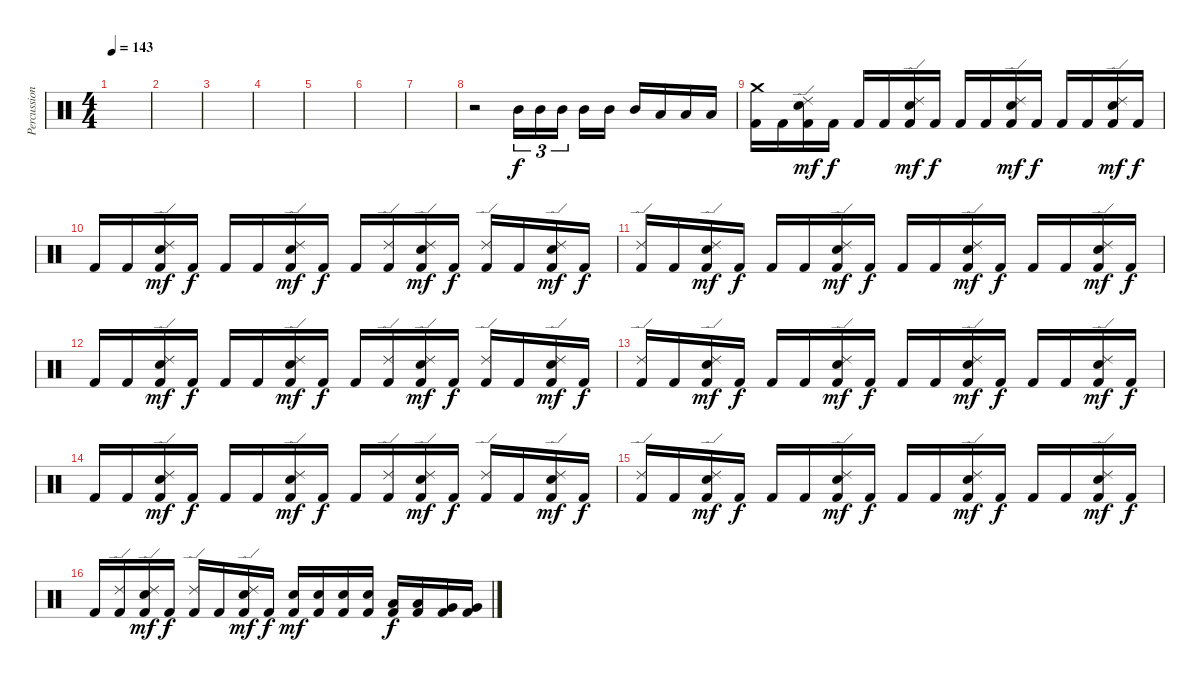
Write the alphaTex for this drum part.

\track ("Percussion" "Percussion") {instrument percussion}
\staff {score}
\articulation defaults
\ts (4 4)
\tempo 143
\clef neutral
\ks c
|
|
|
|
|
|
|
r.2 "Mid Tom (hit)".16{tu (3 2)} "Mid Tom (hit)".16{tu (3 2)} "Mid Tom (hit)".16{tu (3 2) beam splitsecondary} "Mid Tom (hit)".16 "Mid Tom (hit)".16 "Mid Tom (hit)".16 "Low Tom (hit)".16 "Low Tom (hit)".16 "Low Tom (hit)".16 |
("Crash medium (hit)" "Kick (hit) 2").16 "Kick (hit) 2".16 ("Ride (edge) 2" "Electric Snare (hit)" "Kick (hit) 2").16{dy mf} "Kick (hit) 2".16{dy f} "Kick (hit) 2".16 "Kick (hit) 2".16 ("Ride (edge) 2" "Electric Snare (hit)" "Kick (hit) 2").16{dy mf} "Kick (hit) 2".16{dy f} "Kick (hit) 2".16 "Kick (hit) 2".16 ("Ride (edge) 2" "Electric Snare (hit)" "Kick (hit) 2").16{dy mf} "Kick (hit) 2".16{dy f} "Kick (hit) 2".16 "Kick (hit) 2".16 ("Ride (edge) 2" "Electric Snare (hit)" "Kick (hit) 2").16{dy mf} "Kick (hit) 2".16{dy f} |
"Kick (hit) 2".16 "Kick (hit) 2".16 ("Ride (edge) 2" "Electric Snare (hit)" "Kick (hit) 2").16{dy mf} "Kick (hit) 2".16{dy f} "Kick (hit) 2".16 "Kick (hit) 2".16 ("Ride (edge) 2" "Electric Snare (hit)" "Kick (hit) 2").16{dy mf} "Kick (hit) 2".16{dy f} "Kick (hit) 2".16 ("Ride (edge) 2" "Kick (hit) 2").16 ("Ride (edge) 2" "Electric Snare (hit)" "Kick (hit) 2").16{dy mf} "Kick (hit) 2".16{dy f} ("Ride (edge) 2" "Kick (hit) 2").16 "Kick (hit) 2".16 ("Ride (edge) 2" "Electric Snare (hit)" "Kick (hit) 2").16{dy mf} "Kick (hit) 2".16{dy f} |
("Ride (edge) 2" "Kick (hit) 2").16 "Kick (hit) 2".16 ("Ride (edge) 2" "Electric Snare (hit)" "Kick (hit) 2").16{dy mf} "Kick (hit) 2".16{dy f} "Kick (hit) 2".16 "Kick (hit) 2".16 ("Ride (edge) 2" "Electric Snare (hit)" "Kick (hit) 2").16{dy mf} "Kick (hit) 2".16{dy f} "Kick (hit) 2".16 "Kick (hit) 2".16 ("Ride (edge) 2" "Electric Snare (hit)" "Kick (hit) 2").16{dy mf} "Kick (hit) 2".16{dy f} "Kick (hit) 2".16 "Kick (hit) 2".16 ("Ride (edge) 2" "Electric Snare (hit)" "Kick (hit) 2").16{dy mf} "Kick (hit) 2".16{dy f} |
"Kick (hit) 2".16 "Kick (hit) 2".16 ("Ride (edge) 2" "Electric Snare (hit)" "Kick (hit) 2").16{dy mf} "Kick (hit) 2".16{dy f} "Kick (hit) 2".16 "Kick (hit) 2".16 ("Ride (edge) 2" "Electric Snare (hit)" "Kick (hit) 2").16{dy mf} "Kick (hit) 2".16{dy f} "Kick (hit) 2".16 ("Ride (edge) 2" "Kick (hit) 2").16 ("Ride (edge) 2" "Electric Snare (hit)" "Kick (hit) 2").16{dy mf} "Kick (hit) 2".16{dy f} ("Ride (edge) 2" "Kick (hit) 2").16 "Kick (hit) 2".16 ("Ride (edge) 2" "Electric Snare (hit)" "Kick (hit) 2").16{dy mf} "Kick (hit) 2".16{dy f} |
("Ride (edge) 2" "Kick (hit) 2").16 "Kick (hit) 2".16 ("Ride (edge) 2" "Electric Snare (hit)" "Kick (hit) 2").16{dy mf} "Kick (hit) 2".16{dy f} "Kick (hit) 2".16 "Kick (hit) 2".16 ("Ride (edge) 2" "Electric Snare (hit)" "Kick (hit) 2").16{dy mf} "Kick (hit) 2".16{dy f} "Kick (hit) 2".16 "Kick (hit) 2".16 ("Ride (edge) 2" "Electric Snare (hit)" "Kick (hit) 2").16{dy mf} "Kick (hit) 2".16{dy f} "Kick (hit) 2".16 "Kick (hit) 2".16 ("Ride (edge) 2" "Electric Snare (hit)" "Kick (hit) 2").16{dy mf} "Kick (hit) 2".16{dy f} |
"Kick (hit) 2".16 "Kick (hit) 2".16 ("Ride (edge) 2" "Electric Snare (hit)" "Kick (hit) 2").16{dy mf} "Kick (hit) 2".16{dy f} "Kick (hit) 2".16 "Kick (hit) 2".16 ("Ride (edge) 2" "Electric Snare (hit)" "Kick (hit) 2").16{dy mf} "Kick (hit) 2".16{dy f} "Kick (hit) 2".16 ("Ride (edge) 2" "Kick (hit) 2").16 ("Ride (edge) 2" "Electric Snare (hit)" "Kick (hit) 2").16{dy mf} "Kick (hit) 2".16{dy f} ("Ride (edge) 2" "Kick (hit) 2").16 "Kick (hit) 2".16 ("Ride (edge) 2" "Electric Snare (hit)" "Kick (hit) 2").16{dy mf} "Kick (hit) 2".16{dy f} |
("Ride (edge) 2" "Kick (hit) 2").16 "Kick (hit) 2".16 ("Ride (edge) 2" "Electric Snare (hit)" "Kick (hit) 2").16{dy mf} "Kick (hit) 2".16{dy f} "Kick (hit) 2".16 "Kick (hit) 2".16 ("Ride (edge) 2" "Electric Snare (hit)" "Kick (hit) 2").16{dy mf} "Kick (hit) 2".16{dy f} "Kick (hit) 2".16 "Kick (hit) 2".16 ("Ride (edge) 2" "Electric Snare (hit)" "Kick (hit) 2").16{dy mf} "Kick (hit) 2".16{dy f} "Kick (hit) 2".16 "Kick (hit) 2".16 ("Ride (edge) 2" "Electric Snare (hit)" "Kick (hit) 2").16{dy mf} "Kick (hit) 2".16{dy f} |
"Kick (hit) 2".16 ("Ride (edge) 2" "Kick (hit) 2").16 ("Ride (edge) 2" "Electric Snare (hit)" "Kick (hit) 2").16{dy mf} "Kick (hit) 2".16{dy f} ("Ride (edge) 2" "Kick (hit) 2").16 "Kick (hit) 2".16 ("Ride (edge) 2" "Electric Snare (hit)" "Kick (hit) 2").16{dy mf} "Kick (hit) 2".16{dy f} ("Electric Snare (hit)" "Kick (hit) 2").16{dy mf} ("Electric Snare (hit)" "Kick (hit) 2").16 ("Electric Snare (hit)" "Kick (hit) 2").16 ("Electric Snare (hit)" "Kick (hit) 2").16 ("Low Tom (hit)" "Kick (hit) 2").16{dy f} ("Low Tom (hit)" "Kick (hit) 2").16 ("Very Low Tom (hit)" "Kick (hit) 2").16 ("Very Low Tom (hit)" "Kick (hit) 2").16
